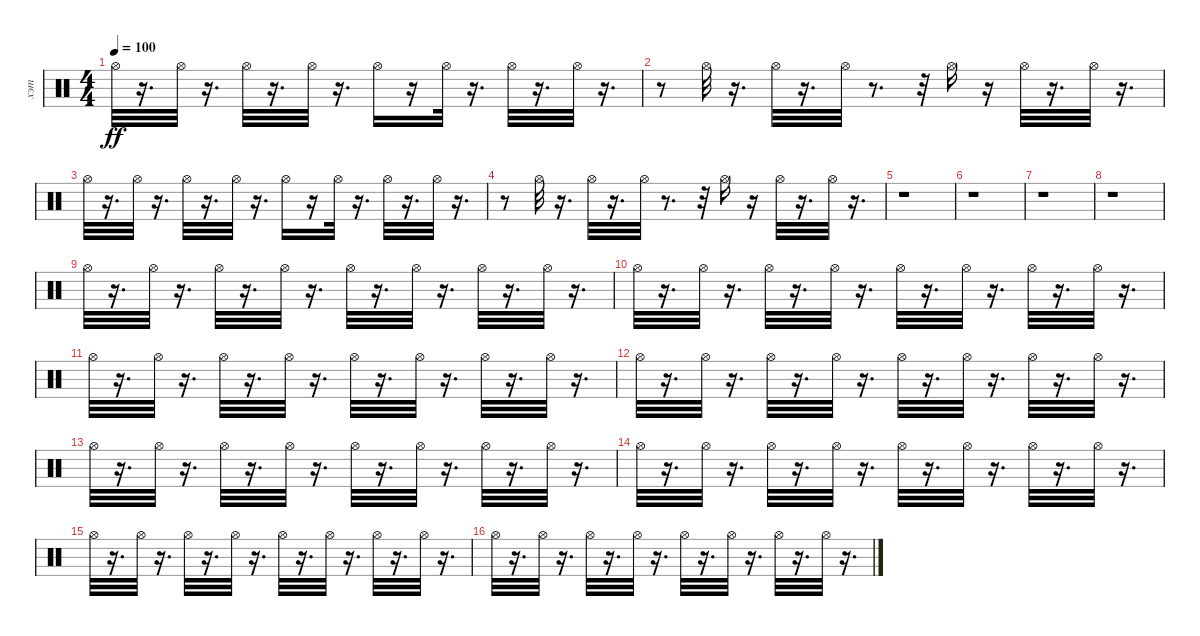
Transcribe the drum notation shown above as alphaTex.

\track ("хэт" "хэт") {instrument percussion}
\staff {score}
\articulation defaults
\ts (4 4)
\tempo 100
\clef neutral
\ks c "Hi-Hat (open)".32{dy ff}
r.16{d} "Hi-Hat (open)".32 r.16{d} "Hi-Hat (open)".32 r.16{d} "Hi-Hat (open)".32 r.16{d} "Hi-Hat (open)".16 r.16 "Hi-Hat (open)".32 r.16{d} "Hi-Hat (open)".32 r.16{d} "Hi-Hat (open)".32 r.16{d} |
r.8 "Hi-Hat (open)".32 r.16{d} "Hi-Hat (open)".32 r.16{d} "Hi-Hat (open)".32 r.8{d} r.32 "Hi-Hat (open)".16 r.16 "Hi-Hat (open)".32 r.16{d} "Hi-Hat (open)".32 r.16{d} |
"Hi-Hat (open)".32 r.16{d} "Hi-Hat (open)".32 r.16{d} "Hi-Hat (open)".32 r.16{d} "Hi-Hat (open)".32 r.16{d} "Hi-Hat (open)".16 r.16 "Hi-Hat (open)".32 r.16{d} "Hi-Hat (open)".32 r.16{d} "Hi-Hat (open)".32 r.16{d} |
r.8 "Hi-Hat (open)".32 r.16{d} "Hi-Hat (open)".32 r.16{d} "Hi-Hat (open)".32 r.8{d} r.32 "Hi-Hat (open)".16 r.16 "Hi-Hat (open)".32 r.16{d} "Hi-Hat (open)".32 r.16{d} |
r.1 |
r.1 |
r.1 |
r.1 |
"Hi-Hat (open)".32 r.16{d} "Hi-Hat (open)".32 r.16{d} "Hi-Hat (open)".32 r.16{d} "Hi-Hat (open)".32 r.16{d} "Hi-Hat (open)".32 r.16{d} "Hi-Hat (open)".32 r.16{d} "Hi-Hat (open)".32 r.16{d} "Hi-Hat (open)".32 r.16{d} |
"Hi-Hat (open)".32 r.16{d} "Hi-Hat (open)".32 r.16{d} "Hi-Hat (open)".32 r.16{d} "Hi-Hat (open)".32 r.16{d} "Hi-Hat (open)".32 r.16{d} "Hi-Hat (open)".32 r.16{d} "Hi-Hat (open)".32 r.16{d} "Hi-Hat (open)".32 r.16{d} |
"Hi-Hat (open)".32 r.16{d} "Hi-Hat (open)".32 r.16{d} "Hi-Hat (open)".32 r.16{d} "Hi-Hat (open)".32 r.16{d} "Hi-Hat (open)".32 r.16{d} "Hi-Hat (open)".32 r.16{d} "Hi-Hat (open)".32 r.16{d} "Hi-Hat (open)".32 r.16{d} |
"Hi-Hat (open)".32 r.16{d} "Hi-Hat (open)".32 r.16{d} "Hi-Hat (open)".32 r.16{d} "Hi-Hat (open)".32 r.16{d} "Hi-Hat (open)".32 r.16{d} "Hi-Hat (open)".32 r.16{d} "Hi-Hat (open)".32 r.16{d} "Hi-Hat (open)".32 r.16{d} |
"Hi-Hat (open)".32 r.16{d} "Hi-Hat (open)".32 r.16{d} "Hi-Hat (open)".32 r.16{d} "Hi-Hat (open)".32 r.16{d} "Hi-Hat (open)".32 r.16{d} "Hi-Hat (open)".32 r.16{d} "Hi-Hat (open)".32 r.16{d} "Hi-Hat (open)".32 r.16{d} |
"Hi-Hat (open)".32 r.16{d} "Hi-Hat (open)".32 r.16{d} "Hi-Hat (open)".32 r.16{d} "Hi-Hat (open)".32 r.16{d} "Hi-Hat (open)".32 r.16{d} "Hi-Hat (open)".32 r.16{d} "Hi-Hat (open)".32 r.16{d} "Hi-Hat (open)".32 r.16{d} |
"Hi-Hat (open)".32 r.16{d} "Hi-Hat (open)".32 r.16{d} "Hi-Hat (open)".32 r.16{d} "Hi-Hat (open)".32 r.16{d} "Hi-Hat (open)".32 r.16{d} "Hi-Hat (open)".32 r.16{d} "Hi-Hat (open)".32 r.16{d} "Hi-Hat (open)".32 r.16{d} |
"Hi-Hat (open)".32 r.16{d} "Hi-Hat (open)".32 r.16{d} "Hi-Hat (open)".32 r.16{d} "Hi-Hat (open)".32 r.16{d} "Hi-Hat (open)".32 r.16{d} "Hi-Hat (open)".32 r.16{d} "Hi-Hat (open)".32 r.16{d} "Hi-Hat (open)".32 r.16{d}
